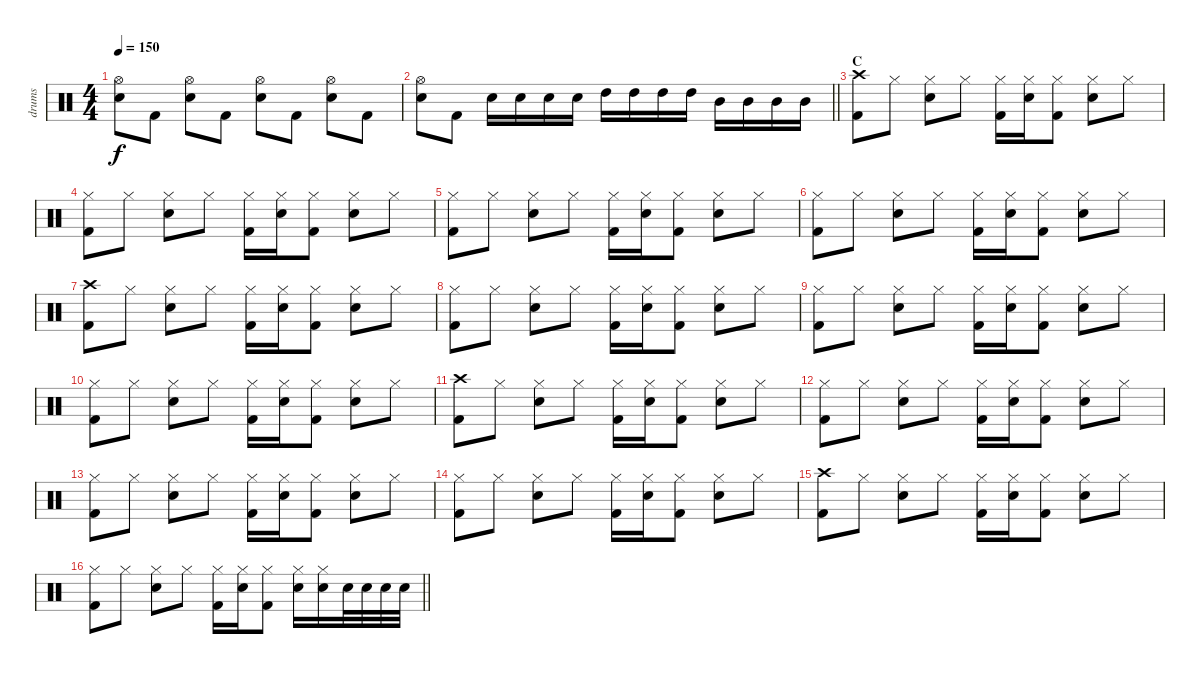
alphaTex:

\track ("drums" "drums") {instrument percussion}
\staff {score}
\articulation defaults
\ts (4 4)
\tempo 150
\clef neutral
\ks c
("Hi-Hat (open)" "Electric Snare (hit)").8{dy f} "Kick (hit) 2".8 ("Hi-Hat (open)" "Electric Snare (hit)").8 "Kick (hit) 2".8 ("Hi-Hat (open)" "Electric Snare (hit)").8 "Kick (hit) 2".8 ("Hi-Hat (open)" "Electric Snare (hit)").8 "Kick (hit) 2".8 |
\barLineRight lightlight
("Hi-Hat (open)" "Electric Snare (hit)").8 "Kick (hit) 2".8 "Electric Snare (hit)".16 "Electric Snare (hit)".16 "Electric Snare (hit)".16 "Electric Snare (hit)".16 "High Tom (hit)".16 "High Tom (hit)".16 "High Tom (hit)".16 "High Tom (hit)".16 "Mid Tom (hit)".16 "Mid Tom (hit)".16 "Mid Tom (hit)".16 "Mid Tom (hit)".16 |
\section ("" "C")
("Crash high (hit)" "Kick (hit) 2").8 "Hi-Hat (closed)".8 ("Hi-Hat (closed)" "Electric Snare (hit)").8 "Hi-Hat (closed)".8 ("Hi-Hat (closed)" "Kick (hit) 2").16 ("Hi-Hat (closed)" "Electric Snare (hit)").16 ("Hi-Hat (closed)" "Kick (hit) 2").8 ("Hi-Hat (closed)" "Electric Snare (hit)").8 "Hi-Hat (closed)".8 |
("Hi-Hat (closed)" "Kick (hit) 2").8 "Hi-Hat (closed)".8 ("Hi-Hat (closed)" "Electric Snare (hit)").8 "Hi-Hat (closed)".8 ("Hi-Hat (closed)" "Kick (hit) 2").16 ("Hi-Hat (closed)" "Electric Snare (hit)").16 ("Hi-Hat (closed)" "Kick (hit) 2").8 ("Hi-Hat (closed)" "Electric Snare (hit)").8 "Hi-Hat (closed)".8 |
("Hi-Hat (closed)" "Kick (hit) 2").8 "Hi-Hat (closed)".8 ("Hi-Hat (closed)" "Electric Snare (hit)").8 "Hi-Hat (closed)".8 ("Hi-Hat (closed)" "Kick (hit) 2").16 ("Hi-Hat (closed)" "Electric Snare (hit)").16 ("Hi-Hat (closed)" "Kick (hit) 2").8 ("Hi-Hat (closed)" "Electric Snare (hit)").8 "Hi-Hat (closed)".8 |
("Hi-Hat (closed)" "Kick (hit) 2").8 "Hi-Hat (closed)".8 ("Hi-Hat (closed)" "Electric Snare (hit)").8 "Hi-Hat (closed)".8 ("Hi-Hat (closed)" "Kick (hit) 2").16 ("Hi-Hat (closed)" "Electric Snare (hit)").16 ("Hi-Hat (closed)" "Kick (hit) 2").8 ("Hi-Hat (closed)" "Electric Snare (hit)").8 "Hi-Hat (closed)".8 |
("Crash high (hit)" "Kick (hit) 2").8 "Hi-Hat (closed)".8 ("Hi-Hat (closed)" "Electric Snare (hit)").8 "Hi-Hat (closed)".8 ("Hi-Hat (closed)" "Kick (hit) 2").16 ("Hi-Hat (closed)" "Electric Snare (hit)").16 ("Hi-Hat (closed)" "Kick (hit) 2").8 ("Hi-Hat (closed)" "Electric Snare (hit)").8 "Hi-Hat (closed)".8 |
("Hi-Hat (closed)" "Kick (hit) 2").8 "Hi-Hat (closed)".8 ("Hi-Hat (closed)" "Electric Snare (hit)").8 "Hi-Hat (closed)".8 ("Hi-Hat (closed)" "Kick (hit) 2").16 ("Hi-Hat (closed)" "Electric Snare (hit)").16 ("Hi-Hat (closed)" "Kick (hit) 2").8 ("Hi-Hat (closed)" "Electric Snare (hit)").8 "Hi-Hat (closed)".8 |
("Hi-Hat (closed)" "Kick (hit) 2").8 "Hi-Hat (closed)".8 ("Hi-Hat (closed)" "Electric Snare (hit)").8 "Hi-Hat (closed)".8 ("Hi-Hat (closed)" "Kick (hit) 2").16 ("Hi-Hat (closed)" "Electric Snare (hit)").16 ("Hi-Hat (closed)" "Kick (hit) 2").8 ("Hi-Hat (closed)" "Electric Snare (hit)").8 "Hi-Hat (closed)".8 |
("Hi-Hat (closed)" "Kick (hit) 2").8 "Hi-Hat (closed)".8 ("Hi-Hat (closed)" "Electric Snare (hit)").8 "Hi-Hat (closed)".8 ("Hi-Hat (closed)" "Kick (hit) 2").16 ("Hi-Hat (closed)" "Electric Snare (hit)").16 ("Hi-Hat (closed)" "Kick (hit) 2").8 ("Hi-Hat (closed)" "Electric Snare (hit)").8 "Hi-Hat (closed)".8 |
("Crash high (hit)" "Kick (hit) 2").8 "Hi-Hat (closed)".8 ("Hi-Hat (closed)" "Electric Snare (hit)").8 "Hi-Hat (closed)".8 ("Hi-Hat (closed)" "Kick (hit) 2").16 ("Hi-Hat (closed)" "Electric Snare (hit)").16 ("Hi-Hat (closed)" "Kick (hit) 2").8 ("Hi-Hat (closed)" "Electric Snare (hit)").8 "Hi-Hat (closed)".8 |
("Hi-Hat (closed)" "Kick (hit) 2").8 "Hi-Hat (closed)".8 ("Hi-Hat (closed)" "Electric Snare (hit)").8 "Hi-Hat (closed)".8 ("Hi-Hat (closed)" "Kick (hit) 2").16 ("Hi-Hat (closed)" "Electric Snare (hit)").16 ("Hi-Hat (closed)" "Kick (hit) 2").8 ("Hi-Hat (closed)" "Electric Snare (hit)").8 "Hi-Hat (closed)".8 |
("Hi-Hat (closed)" "Kick (hit) 2").8 "Hi-Hat (closed)".8 ("Hi-Hat (closed)" "Electric Snare (hit)").8 "Hi-Hat (closed)".8 ("Hi-Hat (closed)" "Kick (hit) 2").16 ("Hi-Hat (closed)" "Electric Snare (hit)").16 ("Hi-Hat (closed)" "Kick (hit) 2").8 ("Hi-Hat (closed)" "Electric Snare (hit)").8 "Hi-Hat (closed)".8 |
("Hi-Hat (closed)" "Kick (hit) 2").8 "Hi-Hat (closed)".8 ("Hi-Hat (closed)" "Electric Snare (hit)").8 "Hi-Hat (closed)".8 ("Hi-Hat (closed)" "Kick (hit) 2").16 ("Hi-Hat (closed)" "Electric Snare (hit)").16 ("Hi-Hat (closed)" "Kick (hit) 2").8 ("Hi-Hat (closed)" "Electric Snare (hit)").8 "Hi-Hat (closed)".8 |
("Crash high (hit)" "Kick (hit) 2").8 "Hi-Hat (closed)".8 ("Hi-Hat (closed)" "Electric Snare (hit)").8 "Hi-Hat (closed)".8 ("Hi-Hat (closed)" "Kick (hit) 2").16 ("Hi-Hat (closed)" "Electric Snare (hit)").16 ("Hi-Hat (closed)" "Kick (hit) 2").8 ("Hi-Hat (closed)" "Electric Snare (hit)").8 "Hi-Hat (closed)".8 |
\barLineRight lightlight
("Hi-Hat (closed)" "Kick (hit) 2").8 "Hi-Hat (closed)".8 ("Hi-Hat (closed)" "Electric Snare (hit)").8 "Hi-Hat (closed)".8 ("Hi-Hat (closed)" "Kick (hit) 2").16 ("Hi-Hat (closed)" "Electric Snare (hit)").16 ("Hi-Hat (closed)" "Kick (hit) 2").8 ("Hi-Hat (closed)" "Electric Snare (hit)").16 ("Hi-Hat (closed)" "Electric Snare (hit)").16 "Electric Snare (hit)".32 "Electric Snare (hit)".32 "Electric Snare (hit)".32 "Electric Snare (hit)".32
